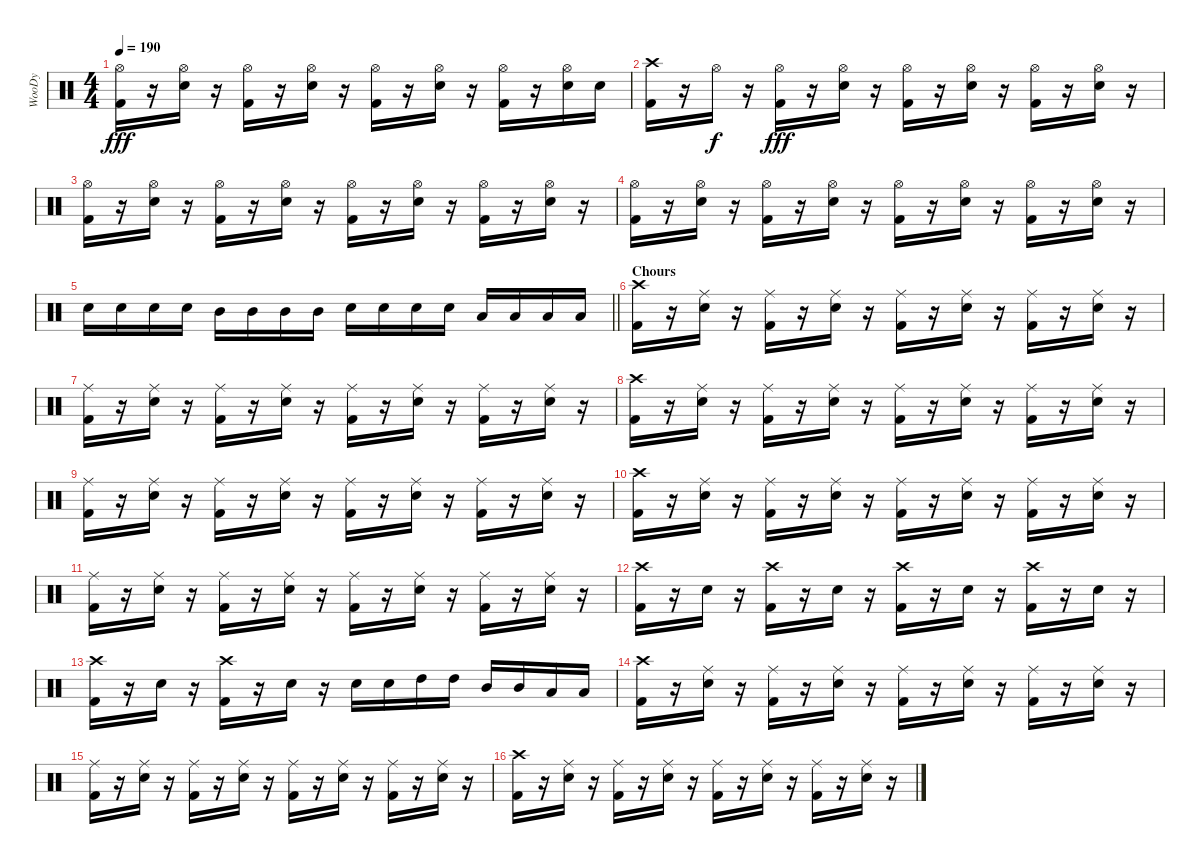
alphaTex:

\track ("WooDy" "WooDy") {instrument percussion}
\staff {score}
\articulation defaults
\ts (4 4)
\tempo 190
\clef neutral
\ks c
("Kick (hit) 2" "Hi-Hat (open)").16{dy fff} r.16 ("Snare (hit) 2" "Hi-Hat (open)").16 r.16 ("Kick (hit) 2" "Hi-Hat (open)").16 r.16 ("Snare (hit) 2" "Hi-Hat (open)").16 r.16 ("Kick (hit) 2" "Hi-Hat (open)").16 r.16 ("Snare (hit) 2" "Hi-Hat (open)").16 r.16 ("Kick (hit) 2" "Hi-Hat (open)").16 r.16 ("Snare (hit) 2" "Hi-Hat (open)").16 "Snare (hit) 2".16 |
("Kick (hit) 2" "Crash high (hit)").16 r.16 "Hi-Hat (open)".16{dy f} r.16 ("Kick (hit) 2" "Hi-Hat (open)").16{dy fff} r.16 ("Snare (hit) 2" "Hi-Hat (open)").16 r.16 ("Kick (hit) 2" "Hi-Hat (open)").16 r.16 ("Snare (hit) 2" "Hi-Hat (open)").16 r.16 ("Kick (hit) 2" "Hi-Hat (open)").16 r.16 ("Snare (hit) 2" "Hi-Hat (open)").16 r.16 |
("Kick (hit) 2" "Hi-Hat (open)").16 r.16 ("Snare (hit) 2" "Hi-Hat (open)").16 r.16 ("Kick (hit) 2" "Hi-Hat (open)").16 r.16 ("Snare (hit) 2" "Hi-Hat (open)").16 r.16 ("Kick (hit) 2" "Hi-Hat (open)").16 r.16 ("Snare (hit) 2" "Hi-Hat (open)").16 r.16 ("Kick (hit) 2" "Hi-Hat (open)").16 r.16 ("Snare (hit) 2" "Hi-Hat (open)").16 r.16 |
("Kick (hit) 2" "Hi-Hat (open)").16 r.16 ("Snare (hit) 2" "Hi-Hat (open)").16 r.16 ("Kick (hit) 2" "Hi-Hat (open)").16 r.16 ("Snare (hit) 2" "Hi-Hat (open)").16 r.16 ("Kick (hit) 2" "Hi-Hat (open)").16 r.16 ("Snare (hit) 2" "Hi-Hat (open)").16 r.16 ("Kick (hit) 2" "Hi-Hat (open)").16 r.16 ("Snare (hit) 2" "Hi-Hat (open)").16 r.16 |
\barLineRight lightlight "Snare (hit) 2".16 "Snare (hit) 2".16 "Snare (hit) 2".16 "Snare (hit) 2".16 "Mid Tom (hit)".16 "Mid Tom (hit)".16 "Mid Tom (hit)".16 "Mid Tom (hit)".16 "Snare (hit) 2".16 "Snare (hit) 2".16 "Snare (hit) 2".16 "Snare (hit) 2".16 "Low Tom (hit)".16 "Low Tom (hit)".16 "Low Tom (hit)".16 "Low Tom (hit)".16
|
\section ("" "Chours")
("Kick (hit) 2" "Crash high (hit)").16 r.16 ("Snare (hit) 2" "Ride (middle)").16 r.16 ("Kick (hit) 2" "Ride (middle)").16 r.16 ("Snare (hit) 2" "Ride (middle)").16 r.16 ("Kick (hit) 2" "Ride (middle)").16 r.16 ("Snare (hit) 2" "Ride (middle)").16 r.16 ("Kick (hit) 2" "Ride (middle)").16 r.16 ("Snare (hit) 2" "Ride (middle)").16 r.16 |
("Kick (hit) 2" "Ride (middle)").16 r.16 ("Snare (hit) 2" "Ride (middle)").16 r.16 ("Kick (hit) 2" "Ride (middle)").16 r.16 ("Snare (hit) 2" "Ride (middle)").16 r.16 ("Kick (hit) 2" "Ride (middle)").16 r.16 ("Snare (hit) 2" "Ride (middle)").16 r.16 ("Kick (hit) 2" "Ride (middle)").16 r.16 ("Snare (hit) 2" "Ride (middle)").16 r.16 |
("Kick (hit) 2" "Crash high (hit)").16 r.16 ("Snare (hit) 2" "Ride (middle)").16 r.16 ("Kick (hit) 2" "Ride (middle)").16 r.16 ("Snare (hit) 2" "Ride (middle)").16 r.16 ("Kick (hit) 2" "Ride (middle)").16 r.16 ("Snare (hit) 2" "Ride (middle)").16 r.16 ("Kick (hit) 2" "Ride (middle)").16 r.16 ("Snare (hit) 2" "Ride (middle)").16 r.16 |
("Kick (hit) 2" "Ride (middle)").16 r.16 ("Snare (hit) 2" "Ride (middle)").16 r.16 ("Kick (hit) 2" "Ride (middle)").16 r.16 ("Snare (hit) 2" "Ride (middle)").16 r.16 ("Kick (hit) 2" "Ride (middle)").16 r.16 ("Snare (hit) 2" "Ride (middle)").16 r.16 ("Kick (hit) 2" "Ride (middle)").16 r.16 ("Snare (hit) 2" "Ride (middle)").16 r.16 |
("Kick (hit) 2" "Crash high (hit)").16 r.16 ("Snare (hit) 2" "Ride (middle)").16 r.16 ("Kick (hit) 2" "Ride (middle)").16 r.16 ("Snare (hit) 2" "Ride (middle)").16 r.16 ("Kick (hit) 2" "Ride (middle)").16 r.16 ("Snare (hit) 2" "Ride (middle)").16 r.16 ("Kick (hit) 2" "Ride (middle)").16 r.16 ("Snare (hit) 2" "Ride (middle)").16 r.16 |
("Kick (hit) 2" "Ride (middle)").16 r.16 ("Snare (hit) 2" "Ride (middle)").16 r.16 ("Kick (hit) 2" "Ride (middle)").16 r.16 ("Snare (hit) 2" "Ride (middle)").16 r.16 ("Kick (hit) 2" "Ride (middle)").16 r.16 ("Snare (hit) 2" "Ride (middle)").16 r.16 ("Kick (hit) 2" "Ride (middle)").16 r.16 ("Snare (hit) 2" "Ride (middle)").16 r.16 |
("Kick (hit) 2" "Crash high (hit)").16 r.16 "Snare (hit) 2".16 r.16 ("Kick (hit) 2" "Crash high (hit)").16 r.16 "Snare (hit) 2".16 r.16 ("Kick (hit) 2" "Crash high (hit)").16 r.16 "Snare (hit) 2".16 r.16 ("Kick (hit) 2" "Crash high (hit)").16 r.16 "Snare (hit) 2".16 r.16 |
("Kick (hit) 2" "Crash high (hit)").16 r.16 "Snare (hit) 2".16 r.16 ("Kick (hit) 2" "Crash high (hit)").16 r.16 "Snare (hit) 2".16 r.16 "Snare (hit) 2".16 "Snare (hit) 2".16 "High Tom (hit)".16 "High Tom (hit)".16 "Mid Tom (hit)".16 "Mid Tom (hit)".16 "Low Tom (hit)".16 "Low Tom (hit)".16 |
("Kick (hit) 2" "Crash high (hit)").16 r.16 ("Snare (hit) 2" "Ride (middle)").16 r.16 ("Kick (hit) 2" "Ride (middle)").16 r.16 ("Snare (hit) 2" "Ride (middle)").16 r.16 ("Kick (hit) 2" "Ride (middle)").16 r.16 ("Snare (hit) 2" "Ride (middle)").16 r.16 ("Kick (hit) 2" "Ride (middle)").16 r.16 ("Snare (hit) 2" "Ride (middle)").16 r.16 |
("Kick (hit) 2" "Ride (middle)").16 r.16 ("Snare (hit) 2" "Ride (middle)").16 r.16 ("Kick (hit) 2" "Ride (middle)").16 r.16 ("Snare (hit) 2" "Ride (middle)").16 r.16 ("Kick (hit) 2" "Ride (middle)").16 r.16 ("Snare (hit) 2" "Ride (middle)").16 r.16 ("Kick (hit) 2" "Ride (middle)").16 r.16 ("Snare (hit) 2" "Ride (middle)").16 r.16 |
("Kick (hit) 2" "Crash high (hit)").16 r.16 ("Snare (hit) 2" "Ride (middle)").16 r.16 ("Kick (hit) 2" "Ride (middle)").16 r.16 ("Snare (hit) 2" "Ride (middle)").16 r.16 ("Kick (hit) 2" "Ride (middle)").16 r.16 ("Snare (hit) 2" "Ride (middle)").16 r.16 ("Kick (hit) 2" "Ride (middle)").16 r.16 ("Snare (hit) 2" "Ride (middle)").16 r.16
